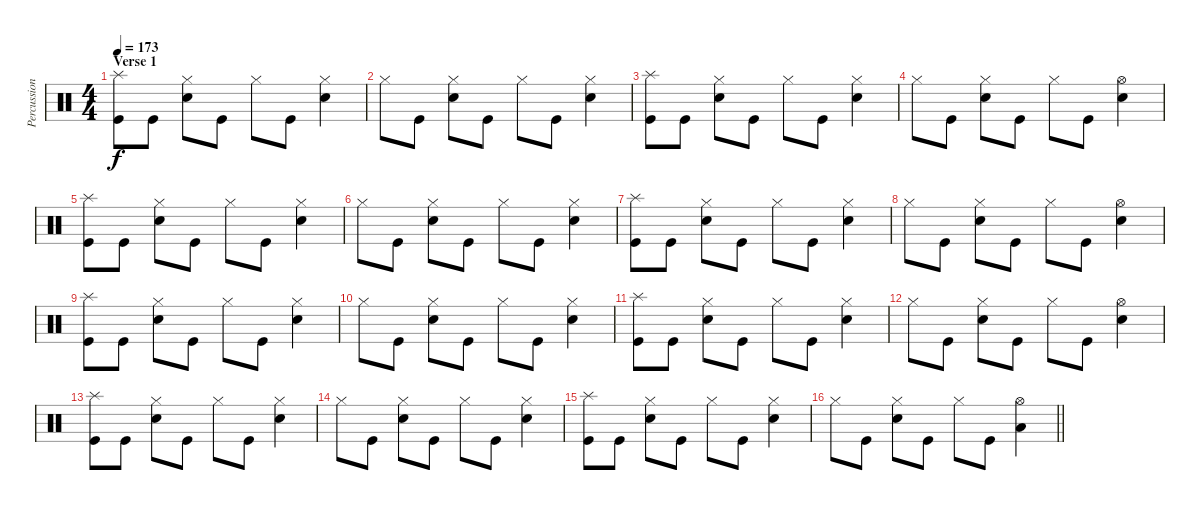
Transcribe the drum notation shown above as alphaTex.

\track ("Percussion" "Percussion") {instrument percussion}
\staff {score}
\articulation defaults
\ts (4 4)
\section ("" "Verse 1")
\tempo 173
\clef neutral
\ks c
("Splash (hit)" "Kick (hit)").8{dy f} "Kick (hit)".8 ("Hi-Hat (closed)" "Electric Snare (hit)").8 "Kick (hit)".8 "Hi-Hat (closed)".8 "Kick (hit)".8 ("Hi-Hat (closed)" "Electric Snare (hit)").4 |
"Hi-Hat (closed)".8 "Kick (hit)".8 ("Hi-Hat (closed)" "Electric Snare (hit)").8 "Kick (hit)".8 "Hi-Hat (closed)".8 "Kick (hit)".8 ("Hi-Hat (closed)" "Electric Snare (hit)").4 |
("Splash (hit)" "Kick (hit)").8 "Kick (hit)".8 ("Hi-Hat (closed)" "Electric Snare (hit)").8 "Kick (hit)".8 "Hi-Hat (closed)".8 "Kick (hit)".8 ("Hi-Hat (closed)" "Electric Snare (hit)").4 |
"Hi-Hat (closed)".8 "Kick (hit)".8 ("Hi-Hat (closed)" "Electric Snare (hit)").8 "Kick (hit)".8 "Hi-Hat (closed)".8 "Kick (hit)".8 ("Hi-Hat (open)" "Electric Snare (hit)").4 |
("Splash (hit)" "Kick (hit)").8 "Kick (hit)".8 ("Hi-Hat (closed)" "Electric Snare (hit)").8 "Kick (hit)".8 "Hi-Hat (closed)".8 "Kick (hit)".8 ("Hi-Hat (closed)" "Electric Snare (hit)").4 |
"Hi-Hat (closed)".8 "Kick (hit)".8 ("Hi-Hat (closed)" "Electric Snare (hit)").8 "Kick (hit)".8 "Hi-Hat (closed)".8 "Kick (hit)".8 ("Hi-Hat (closed)" "Electric Snare (hit)").4 |
("Splash (hit)" "Kick (hit)").8 "Kick (hit)".8 ("Hi-Hat (closed)" "Electric Snare (hit)").8 "Kick (hit)".8 "Hi-Hat (closed)".8 "Kick (hit)".8 ("Hi-Hat (closed)" "Electric Snare (hit)").4 |
"Hi-Hat (closed)".8 "Kick (hit)".8 ("Hi-Hat (closed)" "Electric Snare (hit)").8 "Kick (hit)".8 "Hi-Hat (closed)".8 "Kick (hit)".8 ("Hi-Hat (open)" "Electric Snare (hit)").4 |
("Splash (hit)" "Kick (hit)").8 "Kick (hit)".8 ("Hi-Hat (closed)" "Electric Snare (hit)").8 "Kick (hit)".8 "Hi-Hat (closed)".8 "Kick (hit)".8 ("Hi-Hat (closed)" "Electric Snare (hit)").4 |
"Hi-Hat (closed)".8 "Kick (hit)".8 ("Hi-Hat (closed)" "Electric Snare (hit)").8 "Kick (hit)".8 "Hi-Hat (closed)".8 "Kick (hit)".8 ("Hi-Hat (closed)" "Electric Snare (hit)").4 |
("Splash (hit)" "Kick (hit)").8 "Kick (hit)".8 ("Hi-Hat (closed)" "Electric Snare (hit)").8 "Kick (hit)".8 "Hi-Hat (closed)".8 "Kick (hit)".8 ("Hi-Hat (closed)" "Electric Snare (hit)").4 |
"Hi-Hat (closed)".8 "Kick (hit)".8 ("Hi-Hat (closed)" "Electric Snare (hit)").8 "Kick (hit)".8 "Hi-Hat (closed)".8 "Kick (hit)".8 ("Hi-Hat (open)" "Electric Snare (hit)").4 |
("Splash (hit)" "Kick (hit)").8 "Kick (hit)".8 ("Hi-Hat (closed)" "Electric Snare (hit)").8 "Kick (hit)".8 "Hi-Hat (closed)".8 "Kick (hit)".8 ("Hi-Hat (closed)" "Electric Snare (hit)").4 |
"Hi-Hat (closed)".8 "Kick (hit)".8 ("Hi-Hat (closed)" "Electric Snare (hit)").8 "Kick (hit)".8 "Hi-Hat (closed)".8 "Kick (hit)".8 ("Hi-Hat (closed)" "Electric Snare (hit)").4 |
("Splash (hit)" "Kick (hit)").8 "Kick (hit)".8 ("Hi-Hat (closed)" "Electric Snare (hit)").8 "Kick (hit)".8 "Hi-Hat (closed)".8 "Kick (hit)".8 ("Hi-Hat (closed)" "Electric Snare (hit)").4 |
\barLineRight lightlight "Hi-Hat (closed)".8 "Kick (hit)".8
("Hi-Hat (closed)" "Electric Snare (hit)").8 "Kick (hit)".8 "Hi-Hat (closed)".8 "Kick (hit)".8 ("Hi-Hat (open)" "Low Tom (hit)").4
